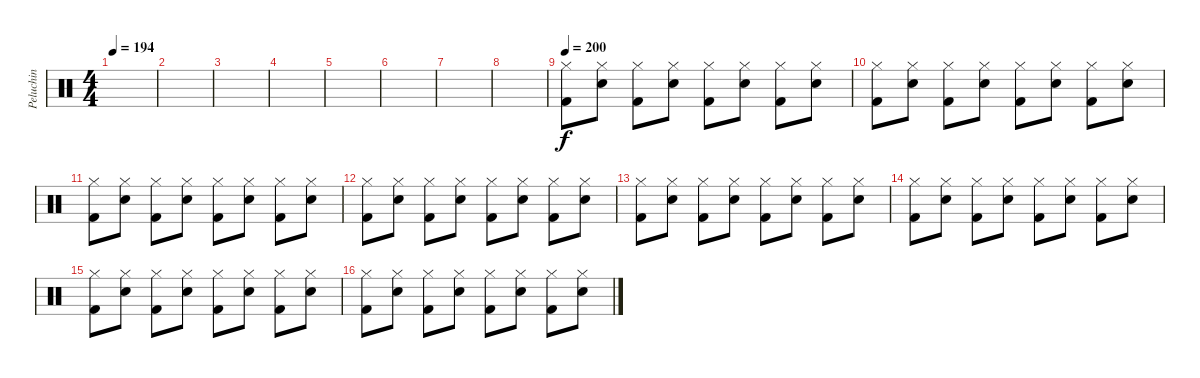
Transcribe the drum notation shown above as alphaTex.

\track ("Peluchin" "Peluchin") {instrument percussion}
\staff {score}
\articulation defaults
\ts (4 4)
\tempo 194
\clef neutral
\ks c
|
|
|
|
|
|
|
|
\tempo 200
("Kick (hit) 2" "Hi-Hat (closed)").8 ("Electric Snare (hit)" "Hi-Hat (closed)").8 ("Kick (hit) 2" "Hi-Hat (closed)").8 ("Electric Snare (hit)" "Hi-Hat (closed)").8 ("Kick (hit) 2" "Hi-Hat (closed)").8 ("Electric Snare (hit)" "Hi-Hat (closed)").8 ("Kick (hit) 2" "Hi-Hat (closed)").8 ("Electric Snare (hit)" "Hi-Hat (closed)").8 |
("Kick (hit) 2" "Hi-Hat (closed)").8 ("Electric Snare (hit)" "Hi-Hat (closed)").8 ("Kick (hit) 2" "Hi-Hat (closed)").8 ("Electric Snare (hit)" "Hi-Hat (closed)").8 ("Kick (hit) 2" "Hi-Hat (closed)").8 ("Electric Snare (hit)" "Hi-Hat (closed)").8 ("Kick (hit) 2" "Hi-Hat (closed)").8 ("Electric Snare (hit)" "Hi-Hat (closed)").8 |
("Kick (hit) 2" "Hi-Hat (closed)").8 ("Electric Snare (hit)" "Hi-Hat (closed)").8 ("Kick (hit) 2" "Hi-Hat (closed)").8 ("Electric Snare (hit)" "Hi-Hat (closed)").8 ("Kick (hit) 2" "Hi-Hat (closed)").8 ("Electric Snare (hit)" "Hi-Hat (closed)").8 ("Kick (hit) 2" "Hi-Hat (closed)").8 ("Electric Snare (hit)" "Hi-Hat (closed)").8 |
("Kick (hit) 2" "Hi-Hat (closed)").8 ("Electric Snare (hit)" "Hi-Hat (closed)").8 ("Kick (hit) 2" "Hi-Hat (closed)").8 ("Electric Snare (hit)" "Hi-Hat (closed)").8 ("Kick (hit) 2" "Hi-Hat (closed)").8 ("Electric Snare (hit)" "Hi-Hat (closed)").8 ("Kick (hit) 2" "Hi-Hat (closed)").8 ("Electric Snare (hit)" "Hi-Hat (closed)").8 |
("Kick (hit) 2" "Hi-Hat (closed)").8 ("Electric Snare (hit)" "Hi-Hat (closed)").8 ("Kick (hit) 2" "Hi-Hat (closed)").8 ("Electric Snare (hit)" "Hi-Hat (closed)").8 ("Kick (hit) 2" "Hi-Hat (closed)").8 ("Electric Snare (hit)" "Hi-Hat (closed)").8 ("Kick (hit) 2" "Hi-Hat (closed)").8 ("Electric Snare (hit)" "Hi-Hat (closed)").8 |
("Kick (hit) 2" "Hi-Hat (closed)").8 ("Electric Snare (hit)" "Hi-Hat (closed)").8 ("Kick (hit) 2" "Hi-Hat (closed)").8 ("Electric Snare (hit)" "Hi-Hat (closed)").8 ("Kick (hit) 2" "Hi-Hat (closed)").8 ("Electric Snare (hit)" "Hi-Hat (closed)").8 ("Kick (hit) 2" "Hi-Hat (closed)").8 ("Electric Snare (hit)" "Hi-Hat (closed)").8 |
("Kick (hit) 2" "Hi-Hat (closed)").8 ("Electric Snare (hit)" "Hi-Hat (closed)").8 ("Kick (hit) 2" "Hi-Hat (closed)").8 ("Electric Snare (hit)" "Hi-Hat (closed)").8 ("Kick (hit) 2" "Hi-Hat (closed)").8 ("Electric Snare (hit)" "Hi-Hat (closed)").8 ("Kick (hit) 2" "Hi-Hat (closed)").8 ("Electric Snare (hit)" "Hi-Hat (closed)").8 |
("Kick (hit) 2" "Hi-Hat (closed)").8 ("Electric Snare (hit)" "Hi-Hat (closed)").8 ("Kick (hit) 2" "Hi-Hat (closed)").8 ("Electric Snare (hit)" "Hi-Hat (closed)").8 ("Kick (hit) 2" "Hi-Hat (closed)").8 ("Electric Snare (hit)" "Hi-Hat (closed)").8 ("Kick (hit) 2" "Hi-Hat (closed)").8 ("Electric Snare (hit)" "Hi-Hat (closed)").8
